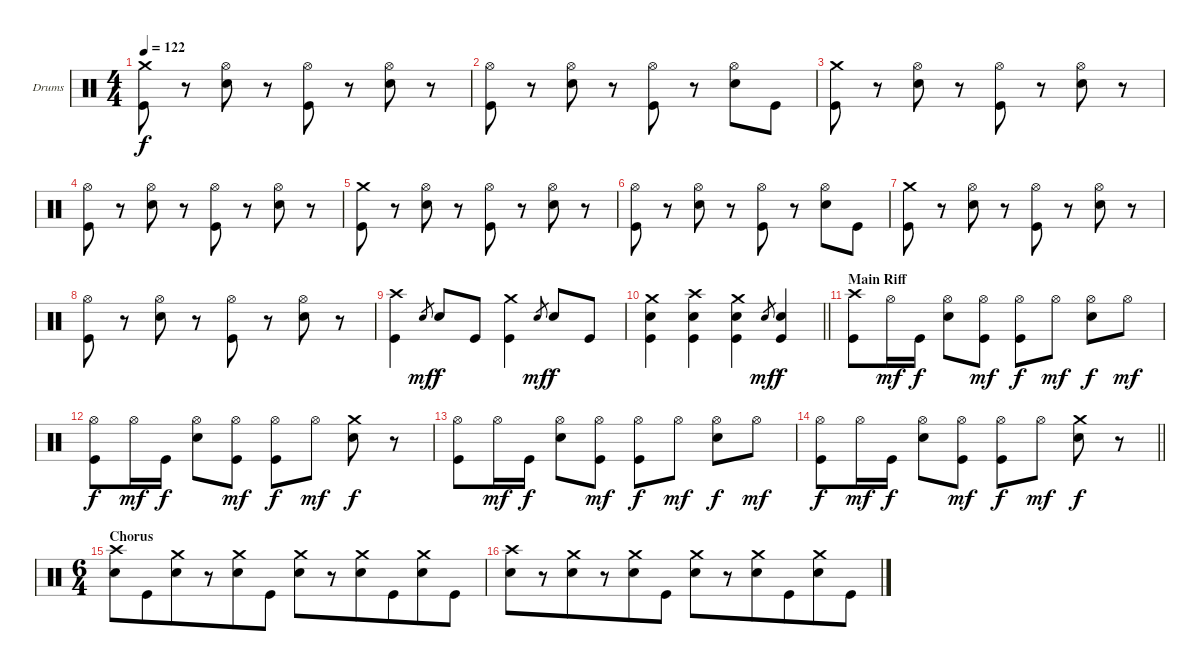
\bracketExtendMode groupsimilarinstruments
\firstSystemTrackNameOrientation horizontal
\otherSystemsTrackNameOrientation horizontal
\track ("Drumkit" "Drums") {instrument percussion}
\staff {score}
\articulation defaults
\ts (4 4)
\tempo 122
\clef neutral
\ks c
("Crash medium (hit)" "Kick (hit)").8{dy f} r.8 ("Hi-Hat (open)" "Snare (hit) 2").8 r.8 ("Hi-Hat (open)" "Kick (hit)").8 r.8 ("Hi-Hat (open)" "Snare (hit) 2").8 r.8 |
("Hi-Hat (open)" "Kick (hit)").8 r.8 ("Hi-Hat (open)" "Snare (hit) 2").8 r.8 ("Hi-Hat (open)" "Kick (hit)").8 r.8 ("Hi-Hat (open)" "Snare (hit) 2").8 "Kick (hit)".8 |
("Crash medium (hit)" "Kick (hit)").8 r.8 ("Hi-Hat (open)" "Snare (hit) 2").8 r.8 ("Hi-Hat (open)" "Kick (hit)").8 r.8 ("Hi-Hat (open)" "Snare (hit) 2").8 r.8 |
("Hi-Hat (open)" "Kick (hit)").8 r.8 ("Hi-Hat (open)" "Snare (hit) 2").8 r.8 ("Hi-Hat (open)" "Kick (hit)").8 r.8 ("Hi-Hat (open)" "Snare (hit) 2").8 r.8 |
("Crash medium (hit)" "Kick (hit)").8 r.8 ("Hi-Hat (open)" "Snare (hit) 2").8 r.8 ("Hi-Hat (open)" "Kick (hit)").8 r.8 ("Hi-Hat (open)" "Snare (hit) 2").8 r.8 |
("Hi-Hat (open)" "Kick (hit)").8 r.8 ("Hi-Hat (open)" "Snare (hit) 2").8 r.8 ("Hi-Hat (open)" "Kick (hit)").8 r.8 ("Hi-Hat (open)" "Snare (hit) 2").8 "Kick (hit)".8 |
("Crash medium (hit)" "Kick (hit)").8 r.8 ("Hi-Hat (open)" "Snare (hit) 2").8 r.8 ("Hi-Hat (open)" "Kick (hit)").8 r.8 ("Hi-Hat (open)" "Snare (hit) 2").8 r.8 |
("Hi-Hat (open)" "Kick (hit)").8 r.8 ("Hi-Hat (open)" "Snare (hit) 2").8 r.8 ("Hi-Hat (open)" "Kick (hit)").8 r.8 ("Hi-Hat (open)" "Snare (hit) 2").8 r.8 |
("Crash high (hit)" "Kick (hit)").4 "Snare (hit) 2".8{gr dy mf} "Snare (hit) 2".8{dy f} "Kick (hit)".8 ("Crash medium (hit)" "Kick (hit)").4 "Snare (hit) 2".8{gr dy mf} "Snare (hit) 2".8{dy f} "Kick (hit)".8 |
\barLineRight lightlight
("Crash medium (hit)" "Snare (hit) 2" "Kick (hit)").4 ("Crash high (hit)" "Snare (hit) 2" "Kick (hit)").4 ("Crash medium (hit)" "Snare (hit) 2" "Kick (hit)").4 "Snare (hit) 2".8{gr dy mf} ("Snare (hit) 2" "Kick (hit)").4{dy f} |
\section ("" "Main Riff")
("Crash high (hit)" "Kick (hit)").8 "Hi-Hat (open)".16{dy mf} "Kick (hit)".16{dy f} ("Hi-Hat (open)" "Snare (hit) 2").8 ("Hi-Hat (open)" "Kick (hit)").8{dy mf} ("Hi-Hat (open)" "Kick (hit)").8{dy f} "Hi-Hat (open)".8{dy mf} ("Hi-Hat (open)" "Snare (hit) 2").8{dy f} "Hi-Hat (open)".8{dy mf} |
("Hi-Hat (open)" "Kick (hit)").8{dy f} "Hi-Hat (open)".16{dy mf} "Kick (hit)".16{dy f} ("Hi-Hat (open)" "Snare (hit) 2").8 ("Hi-Hat (open)" "Kick (hit)").8{dy mf} ("Hi-Hat (open)" "Kick (hit)").8{dy f} "Hi-Hat (open)".8{dy mf} ("Crash medium (hit)" "Snare (hit) 2").8{dy f} r.8 |
("Hi-Hat (open)" "Kick (hit)").8 "Hi-Hat (open)".16{dy mf} "Kick (hit)".16{dy f} ("Hi-Hat (open)" "Snare (hit) 2").8 ("Hi-Hat (open)" "Kick (hit)").8{dy mf} ("Hi-Hat (open)" "Kick (hit)").8{dy f} "Hi-Hat (open)".8{dy mf} ("Hi-Hat (open)" "Snare (hit) 2").8{dy f} "Hi-Hat (open)".8{dy mf} |
\barLineRight lightlight
("Hi-Hat (open)" "Kick (hit)").8{dy f} "Hi-Hat (open)".16{dy mf} "Kick (hit)".16{dy f} ("Hi-Hat (open)" "Snare (hit) 2").8 ("Hi-Hat (open)" "Kick (hit)").8{dy mf} ("Hi-Hat (open)" "Kick (hit)").8{dy f} "Hi-Hat (open)".8{dy mf} ("Crash medium (hit)" "Snare (hit) 2").8{dy f} r.8 |
\ts (6 4)
\beaming (8 6 6)
\section ("" "Chorus")
("Crash high (hit)" "Snare (hit) 2").8 "Kick (hit)".8 ("Crash medium (hit)" "Snare (hit) 2").8 r.8 ("Crash medium (hit)" "Snare (hit) 2").8 "Kick (hit)".8 ("Crash medium (hit)" "Snare (hit) 2").8 r.8 ("Crash medium (hit)" "Snare (hit) 2").8 "Kick (hit)".8 ("Crash medium (hit)" "Snare (hit) 2").8 "Kick (hit)".8 |
("Crash high (hit)" "Snare (hit) 2").8 r.8 ("Crash medium (hit)" "Snare (hit) 2").8 r.8 ("Crash medium (hit)" "Snare (hit) 2").8 "Kick (hit)".8 ("Crash medium (hit)" "Snare (hit) 2").8 r.8 ("Crash medium (hit)" "Snare (hit) 2").8 "Kick (hit)".8 ("Crash medium (hit)" "Snare (hit) 2").8 "Kick (hit)".8
